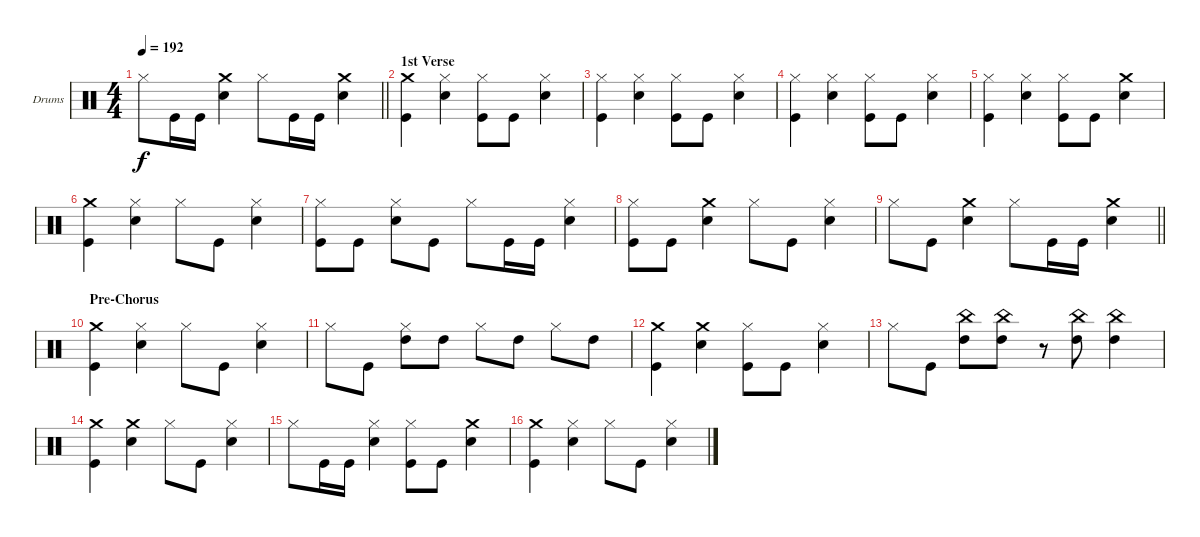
\bracketExtendMode groupsimilarinstruments
\firstSystemTrackNameOrientation horizontal
\otherSystemsTrackNameOrientation horizontal
\track ("Lars Ulrich" "Drums") {instrument percussion}
\staff {score}
\articulation defaults
\ts (4 4)
\tempo 192
\clef neutral
\barLineRight lightlight
\ks c "Hi-Hat (closed)".8{dy f} "Kick (hit)".16 "Kick (hit)".16
("Crash medium (hit)" "Snare (hit) 2").4 "Hi-Hat (closed)".8 "Kick (hit)".16 "Kick (hit)".16 ("Crash medium (hit)" "Snare (hit) 2").4 |
\section ("" "1st Verse")
("Crash medium (hit)" "Kick (hit)").4 ("Hi-Hat (closed)" "Snare (hit) 2").4 ("Hi-Hat (closed)" "Kick (hit)").8 "Kick (hit)".8 ("Hi-Hat (closed)" "Snare (hit) 2").4 |
("Hi-Hat (closed)" "Kick (hit)").4 ("Hi-Hat (closed)" "Snare (hit) 2").4 ("Hi-Hat (closed)" "Kick (hit)").8 "Kick (hit)".8 ("Hi-Hat (closed)" "Snare (hit) 2").4 |
("Hi-Hat (closed)" "Kick (hit)").4 ("Hi-Hat (closed)" "Snare (hit) 2").4 ("Hi-Hat (closed)" "Kick (hit)").8 "Kick (hit)".8 ("Hi-Hat (closed)" "Snare (hit) 2").4 |
("Hi-Hat (closed)" "Kick (hit)").4 ("Hi-Hat (closed)" "Snare (hit) 2").4 ("Hi-Hat (closed)" "Kick (hit)").8 "Kick (hit)".8 ("Crash medium (hit)" "Snare (hit) 2").4 |
("Crash medium (hit)" "Kick (hit)").4 ("Hi-Hat (closed)" "Snare (hit) 2").4 "Hi-Hat (closed)".8 "Kick (hit)".8 ("Hi-Hat (closed)" "Snare (hit) 2").4 |
("Hi-Hat (closed)" "Kick (hit)").8 "Kick (hit)".8 ("Hi-Hat (closed)" "Snare (hit) 2").8 "Kick (hit)".8 "Hi-Hat (closed)".8 "Kick (hit)".16 "Kick (hit)".16 ("Hi-Hat (closed)" "Snare (hit) 2").4 |
("Hi-Hat (closed)" "Kick (hit)").8 "Kick (hit)".8 ("Crash medium (hit)" "Snare (hit) 2").4 "Hi-Hat (closed)".8 "Kick (hit)".8 ("Hi-Hat (closed)" "Snare (hit) 2").4 |
\barLineRight lightlight "Hi-Hat (closed)".8 "Kick (hit)".8
("Crash medium (hit)" "Snare (hit) 2").4 "Hi-Hat (closed)".8 "Kick (hit)".16 "Kick (hit)".16 ("Crash medium (hit)" "Snare (hit) 2").4 |
\section ("" "Pre-Chorus")
("Crash medium (hit)" "Kick (hit)").4 ("Hi-Hat (closed)" "Snare (hit) 2").4 "Hi-Hat (closed)".8 "Kick (hit)".8 ("Hi-Hat (closed)" "Snare (hit) 2").4 |
"Hi-Hat (closed)".8 "Kick (hit)".8 ("Hi-Hat (closed)" "High Tom (hit)").8 "High Tom (hit)".8 "Hi-Hat (closed)".8 "High Tom (hit)".8 "Hi-Hat (closed)".8 "High Tom (hit)".8 |
("Crash medium (hit)" "Kick (hit)").4 ("Crash medium (hit)" "Snare (hit) 2").4 ("Hi-Hat (closed)" "Kick (hit)").8 "Kick (hit)".8 ("Hi-Hat (closed)" "Snare (hit) 2").4 |
"Hi-Hat (closed)".8 "Kick (hit)".8 ("China (hit)" "High Tom (hit)").8 ("China (hit)" "High Tom (hit)").8 r.8 ("China (hit)" "High Tom (hit)").8 ("China (hit)" "High Tom (hit)").4 |
("Crash medium (hit)" "Kick (hit)").4 ("Crash medium (hit)" "Snare (hit) 2").4 "Hi-Hat (closed)".8 "Kick (hit)".8 ("Hi-Hat (closed)" "Snare (hit) 2").4 |
"Hi-Hat (closed)".8 "Kick (hit)".16 "Kick (hit)".16 ("Hi-Hat (closed)" "Snare (hit) 2").4 ("Hi-Hat (closed)" "Kick (hit)").8 "Kick (hit)".8 ("Crash medium (hit)" "Snare (hit) 2").4 |
("Crash medium (hit)" "Kick (hit)").4 ("Hi-Hat (closed)" "Snare (hit) 2").4 "Hi-Hat (closed)".8 "Kick (hit)".8 ("Hi-Hat (closed)" "Snare (hit) 2").4
